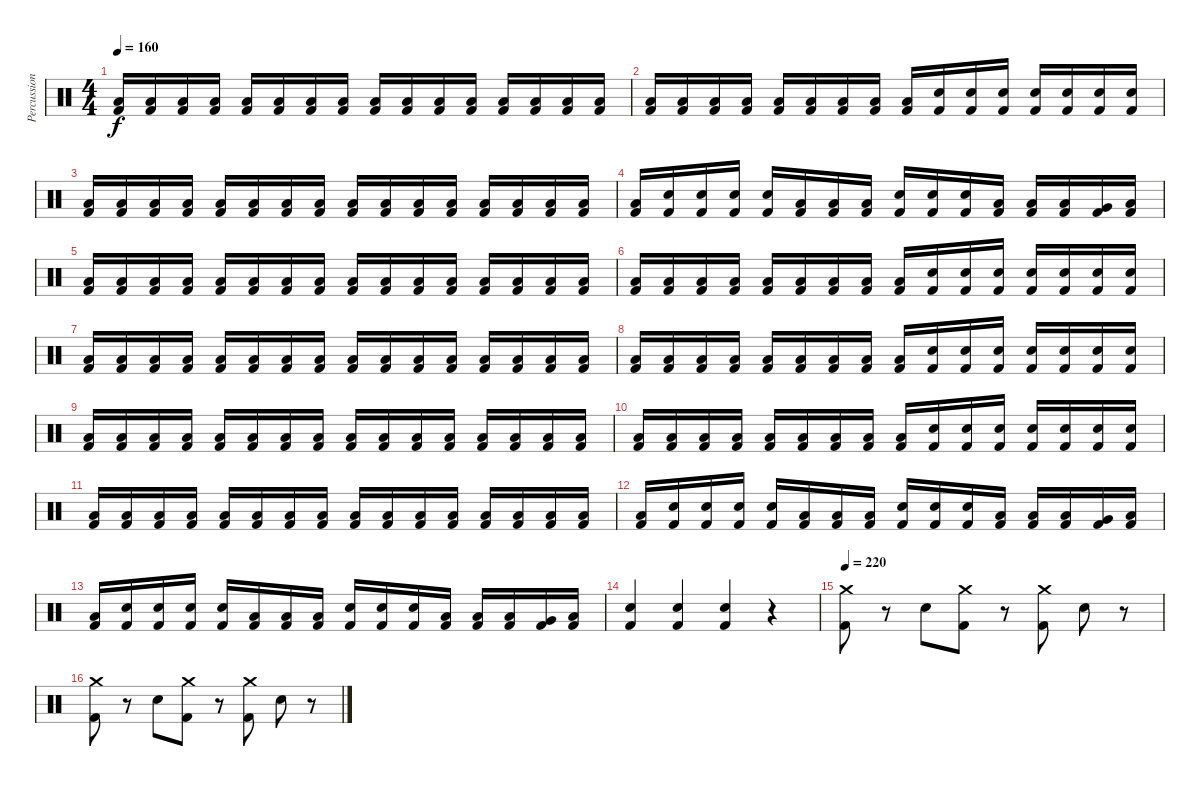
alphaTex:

\track ("Percussion" "Percussion") {instrument percussion}
\staff {score}
\articulation defaults
\ts (4 4)
\tempo 160
\clef neutral
\ks c
("Low Floor Tom (hit)" "Kick (hit) 2").16{dy f} ("Low Floor Tom (hit)" "Kick (hit) 2").16 ("Low Floor Tom (hit)" "Kick (hit) 2").16 ("Low Floor Tom (hit)" "Kick (hit) 2").16 ("Low Floor Tom (hit)" "Kick (hit) 2").16 ("Low Floor Tom (hit)" "Kick (hit) 2").16 ("Low Floor Tom (hit)" "Kick (hit) 2").16 ("Low Floor Tom (hit)" "Kick (hit) 2").16 ("Low Floor Tom (hit)" "Kick (hit) 2").16 ("Low Floor Tom (hit)" "Kick (hit) 2").16 ("Low Floor Tom (hit)" "Kick (hit) 2").16 ("Low Floor Tom (hit)" "Kick (hit) 2").16 ("Low Floor Tom (hit)" "Kick (hit) 2").16 ("Low Floor Tom (hit)" "Kick (hit) 2").16 ("Low Floor Tom (hit)" "Kick (hit) 2").16 ("Low Floor Tom (hit)" "Kick (hit) 2").16 |
("Low Floor Tom (hit)" "Kick (hit) 2").16 ("Low Floor Tom (hit)" "Kick (hit) 2").16 ("Low Floor Tom (hit)" "Kick (hit) 2").16 ("Low Floor Tom (hit)" "Kick (hit) 2").16 ("Low Floor Tom (hit)" "Kick (hit) 2").16 ("Low Floor Tom (hit)" "Kick (hit) 2").16 ("Low Floor Tom (hit)" "Kick (hit) 2").16 ("Low Floor Tom (hit)" "Kick (hit) 2").16 ("Low Floor Tom (hit)" "Kick (hit) 2").16 ("Snare (hit) 2" "Kick (hit) 2").16 ("Snare (hit) 2" "Kick (hit) 2").16 ("Snare (hit) 2" "Kick (hit) 2").16 ("Snare (hit) 2" "Kick (hit) 2").16 ("Snare (hit) 2" "Kick (hit) 2").16 ("Snare (hit) 2" "Kick (hit) 2").16 ("Snare (hit) 2" "Kick (hit) 2").16 |
("Low Floor Tom (hit)" "Kick (hit) 2").16 ("Low Floor Tom (hit)" "Kick (hit) 2").16 ("Low Floor Tom (hit)" "Kick (hit) 2").16 ("Low Floor Tom (hit)" "Kick (hit) 2").16 ("Low Floor Tom (hit)" "Kick (hit) 2").16 ("Low Floor Tom (hit)" "Kick (hit) 2").16 ("Low Floor Tom (hit)" "Kick (hit) 2").16 ("Low Floor Tom (hit)" "Kick (hit) 2").16 ("Low Floor Tom (hit)" "Kick (hit) 2").16 ("Low Floor Tom (hit)" "Kick (hit) 2").16 ("Low Floor Tom (hit)" "Kick (hit) 2").16 ("Low Floor Tom (hit)" "Kick (hit) 2").16 ("Low Floor Tom (hit)" "Kick (hit) 2").16 ("Low Floor Tom (hit)" "Kick (hit) 2").16 ("Low Floor Tom (hit)" "Kick (hit) 2").16 ("Low Floor Tom (hit)" "Kick (hit) 2").16 |
("Low Floor Tom (hit)" "Kick (hit) 2").16 ("Snare (hit) 2" "Kick (hit) 2").16 ("Snare (hit) 2" "Kick (hit) 2").16 ("Snare (hit) 2" "Kick (hit) 2").16 ("Snare (hit) 2" "Kick (hit) 2").16 ("Low Floor Tom (hit)" "Kick (hit) 2").16 ("Low Floor Tom (hit)" "Kick (hit) 2").16 ("Low Floor Tom (hit)" "Kick (hit) 2").16 ("Snare (hit) 2" "Kick (hit) 2").16 ("Snare (hit) 2" "Kick (hit) 2").16 ("Snare (hit) 2" "Kick (hit) 2").16 ("Low Tom (hit)" "Kick (hit) 2").16 ("Low Tom (hit)" "Kick (hit) 2").16 ("Low Tom (hit)" "Kick (hit) 2").16 ("Very Low Tom (hit)" "Kick (hit) 2").16 ("Low Floor Tom (hit)" "Kick (hit) 2").16 |
("Low Floor Tom (hit)" "Kick (hit) 2").16 ("Low Floor Tom (hit)" "Kick (hit) 2").16 ("Low Floor Tom (hit)" "Kick (hit) 2").16 ("Low Floor Tom (hit)" "Kick (hit) 2").16 ("Low Floor Tom (hit)" "Kick (hit) 2").16 ("Low Floor Tom (hit)" "Kick (hit) 2").16 ("Low Floor Tom (hit)" "Kick (hit) 2").16 ("Low Floor Tom (hit)" "Kick (hit) 2").16 ("Low Floor Tom (hit)" "Kick (hit) 2").16 ("Low Floor Tom (hit)" "Kick (hit) 2").16 ("Low Floor Tom (hit)" "Kick (hit) 2").16 ("Low Floor Tom (hit)" "Kick (hit) 2").16 ("Low Floor Tom (hit)" "Kick (hit) 2").16 ("Low Floor Tom (hit)" "Kick (hit) 2").16 ("Low Floor Tom (hit)" "Kick (hit) 2").16 ("Low Floor Tom (hit)" "Kick (hit) 2").16 |
("Low Floor Tom (hit)" "Kick (hit) 2").16 ("Low Floor Tom (hit)" "Kick (hit) 2").16 ("Low Floor Tom (hit)" "Kick (hit) 2").16 ("Low Floor Tom (hit)" "Kick (hit) 2").16 ("Low Floor Tom (hit)" "Kick (hit) 2").16 ("Low Floor Tom (hit)" "Kick (hit) 2").16 ("Low Floor Tom (hit)" "Kick (hit) 2").16 ("Low Floor Tom (hit)" "Kick (hit) 2").16 ("Low Floor Tom (hit)" "Kick (hit) 2").16 ("Snare (hit) 2" "Kick (hit) 2").16 ("Snare (hit) 2" "Kick (hit) 2").16 ("Snare (hit) 2" "Kick (hit) 2").16 ("Snare (hit) 2" "Kick (hit) 2").16 ("Snare (hit) 2" "Kick (hit) 2").16 ("Snare (hit) 2" "Kick (hit) 2").16 ("Snare (hit) 2" "Kick (hit) 2").16 |
("Low Floor Tom (hit)" "Kick (hit) 2").16 ("Low Floor Tom (hit)" "Kick (hit) 2").16 ("Low Floor Tom (hit)" "Kick (hit) 2").16 ("Low Floor Tom (hit)" "Kick (hit) 2").16 ("Low Floor Tom (hit)" "Kick (hit) 2").16 ("Low Floor Tom (hit)" "Kick (hit) 2").16 ("Low Floor Tom (hit)" "Kick (hit) 2").16 ("Low Floor Tom (hit)" "Kick (hit) 2").16 ("Low Floor Tom (hit)" "Kick (hit) 2").16 ("Low Floor Tom (hit)" "Kick (hit) 2").16 ("Low Floor Tom (hit)" "Kick (hit) 2").16 ("Low Floor Tom (hit)" "Kick (hit) 2").16 ("Low Floor Tom (hit)" "Kick (hit) 2").16 ("Low Floor Tom (hit)" "Kick (hit) 2").16 ("Low Floor Tom (hit)" "Kick (hit) 2").16 ("Low Floor Tom (hit)" "Kick (hit) 2").16 |
("Low Floor Tom (hit)" "Kick (hit) 2").16 ("Low Floor Tom (hit)" "Kick (hit) 2").16 ("Low Floor Tom (hit)" "Kick (hit) 2").16 ("Low Floor Tom (hit)" "Kick (hit) 2").16 ("Low Floor Tom (hit)" "Kick (hit) 2").16 ("Low Floor Tom (hit)" "Kick (hit) 2").16 ("Low Floor Tom (hit)" "Kick (hit) 2").16 ("Low Floor Tom (hit)" "Kick (hit) 2").16 ("Low Floor Tom (hit)" "Kick (hit) 2").16 ("Snare (hit) 2" "Kick (hit) 2").16 ("Snare (hit) 2" "Kick (hit) 2").16 ("Snare (hit) 2" "Kick (hit) 2").16 ("Snare (hit) 2" "Kick (hit) 2").16 ("Snare (hit) 2" "Kick (hit) 2").16 ("Snare (hit) 2" "Kick (hit) 2").16 ("Snare (hit) 2" "Kick (hit) 2").16 |
("Low Floor Tom (hit)" "Kick (hit) 2").16 ("Low Floor Tom (hit)" "Kick (hit) 2").16 ("Low Floor Tom (hit)" "Kick (hit) 2").16 ("Low Floor Tom (hit)" "Kick (hit) 2").16 ("Low Floor Tom (hit)" "Kick (hit) 2").16 ("Low Floor Tom (hit)" "Kick (hit) 2").16 ("Low Floor Tom (hit)" "Kick (hit) 2").16 ("Low Floor Tom (hit)" "Kick (hit) 2").16 ("Low Floor Tom (hit)" "Kick (hit) 2").16 ("Low Floor Tom (hit)" "Kick (hit) 2").16 ("Low Floor Tom (hit)" "Kick (hit) 2").16 ("Low Floor Tom (hit)" "Kick (hit) 2").16 ("Low Floor Tom (hit)" "Kick (hit) 2").16 ("Low Floor Tom (hit)" "Kick (hit) 2").16 ("Low Floor Tom (hit)" "Kick (hit) 2").16 ("Low Floor Tom (hit)" "Kick (hit) 2").16 |
("Low Floor Tom (hit)" "Kick (hit) 2").16 ("Low Floor Tom (hit)" "Kick (hit) 2").16 ("Low Floor Tom (hit)" "Kick (hit) 2").16 ("Low Floor Tom (hit)" "Kick (hit) 2").16 ("Low Floor Tom (hit)" "Kick (hit) 2").16 ("Low Floor Tom (hit)" "Kick (hit) 2").16 ("Low Floor Tom (hit)" "Kick (hit) 2").16 ("Low Floor Tom (hit)" "Kick (hit) 2").16 ("Low Floor Tom (hit)" "Kick (hit) 2").16 ("Snare (hit) 2" "Kick (hit) 2").16 ("Snare (hit) 2" "Kick (hit) 2").16 ("Snare (hit) 2" "Kick (hit) 2").16 ("Snare (hit) 2" "Kick (hit) 2").16 ("Snare (hit) 2" "Kick (hit) 2").16 ("Snare (hit) 2" "Kick (hit) 2").16 ("Snare (hit) 2" "Kick (hit) 2").16 |
("Low Floor Tom (hit)" "Kick (hit) 2").16 ("Low Floor Tom (hit)" "Kick (hit) 2").16 ("Low Floor Tom (hit)" "Kick (hit) 2").16 ("Low Floor Tom (hit)" "Kick (hit) 2").16 ("Low Floor Tom (hit)" "Kick (hit) 2").16 ("Low Floor Tom (hit)" "Kick (hit) 2").16 ("Low Floor Tom (hit)" "Kick (hit) 2").16 ("Low Floor Tom (hit)" "Kick (hit) 2").16 ("Low Floor Tom (hit)" "Kick (hit) 2").16 ("Low Floor Tom (hit)" "Kick (hit) 2").16 ("Low Floor Tom (hit)" "Kick (hit) 2").16 ("Low Floor Tom (hit)" "Kick (hit) 2").16 ("Low Floor Tom (hit)" "Kick (hit) 2").16 ("Low Floor Tom (hit)" "Kick (hit) 2").16 ("Low Floor Tom (hit)" "Kick (hit) 2").16 ("Low Floor Tom (hit)" "Kick (hit) 2").16 |
("Low Floor Tom (hit)" "Kick (hit) 2").16 ("Snare (hit) 2" "Kick (hit) 2").16 ("Snare (hit) 2" "Kick (hit) 2").16 ("Snare (hit) 2" "Kick (hit) 2").16 ("Snare (hit) 2" "Kick (hit) 2").16 ("Low Floor Tom (hit)" "Kick (hit) 2").16 ("Low Floor Tom (hit)" "Kick (hit) 2").16 ("Low Floor Tom (hit)" "Kick (hit) 2").16 ("Snare (hit) 2" "Kick (hit) 2").16 ("Snare (hit) 2" "Kick (hit) 2").16 ("Snare (hit) 2" "Kick (hit) 2").16 ("Low Tom (hit)" "Kick (hit) 2").16 ("Low Tom (hit)" "Kick (hit) 2").16 ("Low Tom (hit)" "Kick (hit) 2").16 ("Very Low Tom (hit)" "Kick (hit) 2").16 ("Low Floor Tom (hit)" "Kick (hit) 2").16 |
("Low Floor Tom (hit)" "Kick (hit) 2").16 ("Snare (hit) 2" "Kick (hit) 2").16 ("Snare (hit) 2" "Kick (hit) 2").16 ("Snare (hit) 2" "Kick (hit) 2").16 ("Snare (hit) 2" "Kick (hit) 2").16 ("Low Floor Tom (hit)" "Kick (hit) 2").16 ("Low Floor Tom (hit)" "Kick (hit) 2").16 ("Low Floor Tom (hit)" "Kick (hit) 2").16 ("Snare (hit) 2" "Kick (hit) 2").16 ("Snare (hit) 2" "Kick (hit) 2").16 ("Snare (hit) 2" "Kick (hit) 2").16 ("Low Tom (hit)" "Kick (hit) 2").16 ("Low Tom (hit)" "Kick (hit) 2").16 ("Low Tom (hit)" "Kick (hit) 2").16 ("Very Low Tom (hit)" "Kick (hit) 2").16 ("Low Floor Tom (hit)" "Kick (hit) 2").16 |
("Snare (hit)" "Kick (hit) 2").4 ("Snare (hit)" "Kick (hit) 2").4 ("Snare (hit)" "Kick (hit) 2").4 r.4 |
\tempo 220
("Crash medium (hit)" "Kick (hit) 2").8 r.8 "Snare (hit) 2".8 ("Crash medium (hit)" "Kick (hit) 2").8 r.8 ("Crash medium (hit)" "Kick (hit) 2").8 "Snare (hit) 2".8 r.8 |
("Crash medium (hit)" "Kick (hit) 2").8 r.8 "Snare (hit) 2".8 ("Crash medium (hit)" "Kick (hit) 2").8 r.8 ("Crash medium (hit)" "Kick (hit) 2").8 "Snare (hit) 2".8 r.8
